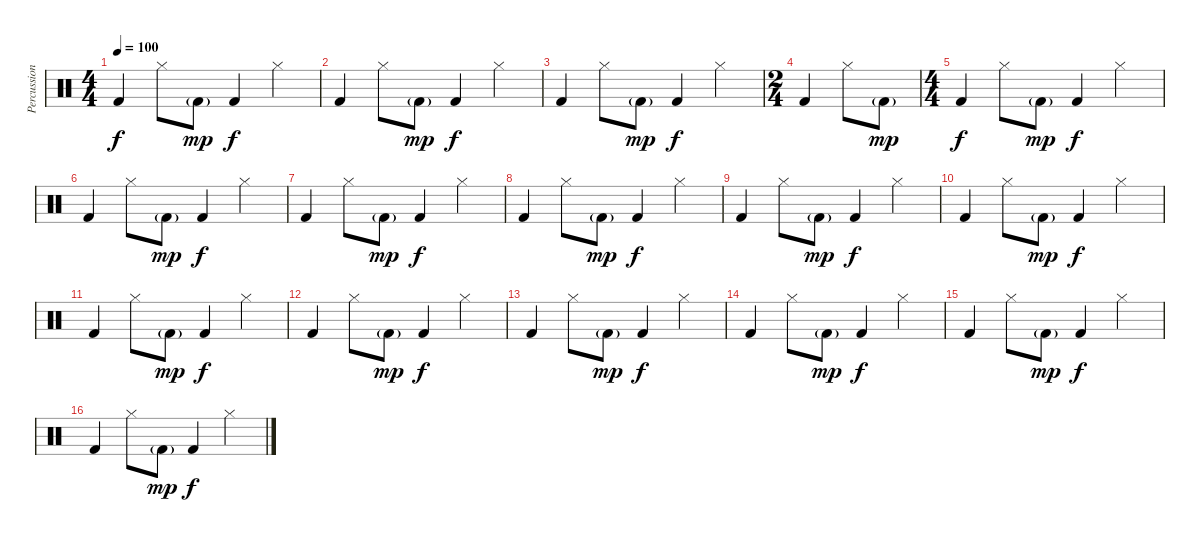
\track ("Percussion" "Percussion") {instrument percussion}
\staff {score}
\articulation defaults
\ts (4 4)
\tempo 100
\clef neutral
\ks c "Kick (hit) 2".4{dy f volume 5} "Hi-Hat (closed)".8{volume 11} "Kick (hit) 2"{g}.8{dy mp volume 5} "Kick (hit) 2".4{dy f} "Hi-Hat (closed)".4{volume 11}
|
"Kick (hit) 2".4{volume 5} "Hi-Hat (closed)".8{volume 11} "Kick (hit) 2"{g}.8{dy mp volume 5} "Kick (hit) 2".4{dy f} "Hi-Hat (closed)".4{volume 11} |
"Kick (hit) 2".4{volume 5} "Hi-Hat (closed)".8{volume 11} "Kick (hit) 2"{g}.8{dy mp volume 5} "Kick (hit) 2".4{dy f} "Hi-Hat (closed)".4{volume 11} |
\ts (2 4)
"Kick (hit) 2".4{volume 5} "Hi-Hat (closed)".8{volume 11} "Kick (hit) 2"{g}.8{dy mp volume 5} |
\ts (4 4)
"Kick (hit) 2".4{dy f volume 5} "Hi-Hat (closed)".8{volume 11} "Kick (hit) 2"{g}.8{dy mp volume 5} "Kick (hit) 2".4{dy f} "Hi-Hat (closed)".4{volume 11} |
"Kick (hit) 2".4{volume 5} "Hi-Hat (closed)".8{volume 11} "Kick (hit) 2"{g}.8{dy mp volume 5} "Kick (hit) 2".4{dy f} "Hi-Hat (closed)".4{volume 11} |
"Kick (hit) 2".4{volume 5} "Hi-Hat (closed)".8{volume 11} "Kick (hit) 2"{g}.8{dy mp volume 5} "Kick (hit) 2".4{dy f} "Hi-Hat (closed)".4{volume 11} |
"Kick (hit) 2".4{volume 5} "Hi-Hat (closed)".8{volume 11} "Kick (hit) 2"{g}.8{dy mp volume 5} "Kick (hit) 2".4{dy f} "Hi-Hat (closed)".4{volume 11} |
"Kick (hit) 2".4{volume 5} "Hi-Hat (closed)".8{volume 11} "Kick (hit) 2"{g}.8{dy mp volume 5} "Kick (hit) 2".4{dy f} "Hi-Hat (closed)".4{volume 11} |
"Kick (hit) 2".4{volume 5} "Hi-Hat (closed)".8{volume 11} "Kick (hit) 2"{g}.8{dy mp volume 5} "Kick (hit) 2".4{dy f} "Hi-Hat (closed)".4{volume 11} |
"Kick (hit) 2".4{volume 5} "Hi-Hat (closed)".8{volume 11} "Kick (hit) 2"{g}.8{dy mp volume 5} "Kick (hit) 2".4{dy f} "Hi-Hat (closed)".4{volume 11} |
"Kick (hit) 2".4{volume 5} "Hi-Hat (closed)".8{volume 11} "Kick (hit) 2"{g}.8{dy mp volume 5} "Kick (hit) 2".4{dy f} "Hi-Hat (closed)".4{volume 11} |
"Kick (hit) 2".4{volume 5} "Hi-Hat (closed)".8{volume 11} "Kick (hit) 2"{g}.8{dy mp volume 5} "Kick (hit) 2".4{dy f} "Hi-Hat (closed)".4{volume 11} |
"Kick (hit) 2".4{volume 5} "Hi-Hat (closed)".8{volume 11} "Kick (hit) 2"{g}.8{dy mp volume 5} "Kick (hit) 2".4{dy f} "Hi-Hat (closed)".4{volume 11} |
"Kick (hit) 2".4{volume 5} "Hi-Hat (closed)".8{volume 11} "Kick (hit) 2"{g}.8{dy mp volume 5} "Kick (hit) 2".4{dy f} "Hi-Hat (closed)".4{volume 11} |
"Kick (hit) 2".4{volume 5} "Hi-Hat (closed)".8{volume 11} "Kick (hit) 2"{g}.8{dy mp volume 5} "Kick (hit) 2".4{dy f} "Hi-Hat (closed)".4{volume 11}
